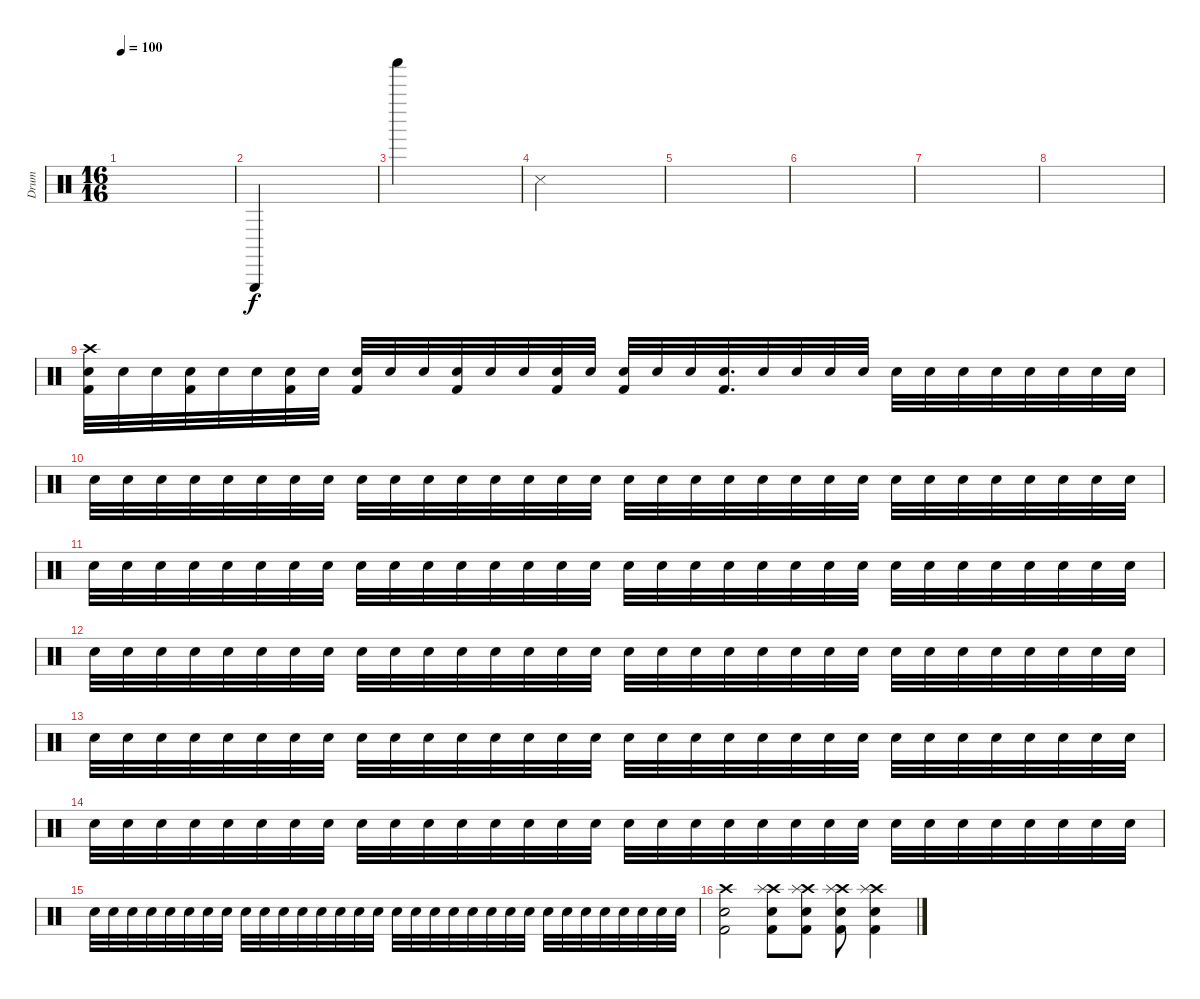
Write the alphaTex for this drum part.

\track ("Drum" "Drum") {instrument percussion}
\staff {score}
\articulation defaults
\ts (16 16)
\tempo 100
\clef neutral
\ks aminor
|
"Triangle (hit)".4 |
"Shaker (hit)".4 |
"Snare (side stick) 3".4 |
|
|
|
|
("Crash high (hit)" "Kick (hit) 2" "Snare (hit) 2").32 "Snare (hit) 2".32 "Snare (hit) 2".32 ("Kick (hit) 2" "Snare (hit) 2").32 "Snare (hit) 2".32 "Snare (hit) 2".32 ("Kick (hit) 2" "Snare (hit) 2").32 "Snare (hit) 2".32 ("Kick (hit) 2" "Snare (hit) 2").32 "Snare (hit) 2".32 "Snare (hit) 2".32 ("Kick (hit) 2" "Snare (hit) 2").32 "Snare (hit) 2".32 "Snare (hit) 2".32 ("Kick (hit) 2" "Snare (hit) 2").32 "Snare (hit) 2".32 ("Kick (hit) 2" "Snare (hit) 2").32 "Snare (hit) 2".32 "Snare (hit) 2".32 ("Kick (hit) 2" "Snare (hit) 2").32{d} "Snare (hit) 2".32 "Snare (hit) 2".32 "Snare (hit) 2".32 "Snare (hit) 2".32 "Snare (hit) 2".32 "Snare (hit) 2".32 "Snare (hit) 2".32 "Snare (hit) 2".32 "Snare (hit) 2".32 "Snare (hit) 2".32 "Snare (hit) 2".32 "Snare (hit) 2".32 |
"Snare (hit) 2".32 "Snare (hit) 2".32 "Snare (hit) 2".32 "Snare (hit) 2".32 "Snare (hit) 2".32 "Snare (hit) 2".32 "Snare (hit) 2".32 "Snare (hit) 2".32 "Snare (hit) 2".32 "Snare (hit) 2".32 "Snare (hit) 2".32 "Snare (hit) 2".32 "Snare (hit) 2".32 "Snare (hit) 2".32 "Snare (hit) 2".32 "Snare (hit) 2".32 "Snare (hit) 2".32 "Snare (hit) 2".32 "Snare (hit) 2".32 "Snare (hit) 2".32 "Snare (hit) 2".32 "Snare (hit) 2".32 "Snare (hit) 2".32 "Snare (hit) 2".32 "Snare (hit) 2".32 "Snare (hit) 2".32 "Snare (hit) 2".32 "Snare (hit) 2".32 "Snare (hit) 2".32 "Snare (hit) 2".32 "Snare (hit) 2".32 "Snare (hit) 2".32 |
"Snare (hit) 2".32 "Snare (hit) 2".32 "Snare (hit) 2".32 "Snare (hit) 2".32 "Snare (hit) 2".32 "Snare (hit) 2".32 "Snare (hit) 2".32 "Snare (hit) 2".32 "Snare (hit) 2".32 "Snare (hit) 2".32 "Snare (hit) 2".32 "Snare (hit) 2".32 "Snare (hit) 2".32 "Snare (hit) 2".32 "Snare (hit) 2".32 "Snare (hit) 2".32 "Snare (hit) 2".32 "Snare (hit) 2".32 "Snare (hit) 2".32 "Snare (hit) 2".32 "Snare (hit) 2".32 "Snare (hit) 2".32 "Snare (hit) 2".32 "Snare (hit) 2".32 "Snare (hit) 2".32 "Snare (hit) 2".32 "Snare (hit) 2".32 "Snare (hit) 2".32 "Snare (hit) 2".32 "Snare (hit) 2".32 "Snare (hit) 2".32 "Snare (hit) 2".32 |
"Snare (hit) 2".32 "Snare (hit) 2".32 "Snare (hit) 2".32 "Snare (hit) 2".32 "Snare (hit) 2".32 "Snare (hit) 2".32 "Snare (hit) 2".32 "Snare (hit) 2".32 "Snare (hit) 2".32 "Snare (hit) 2".32 "Snare (hit) 2".32 "Snare (hit) 2".32 "Snare (hit) 2".32 "Snare (hit) 2".32 "Snare (hit) 2".32 "Snare (hit) 2".32 "Snare (hit) 2".32 "Snare (hit) 2".32 "Snare (hit) 2".32 "Snare (hit) 2".32 "Snare (hit) 2".32 "Snare (hit) 2".32 "Snare (hit) 2".32 "Snare (hit) 2".32 "Snare (hit) 2".32 "Snare (hit) 2".32 "Snare (hit) 2".32 "Snare (hit) 2".32 "Snare (hit) 2".32 "Snare (hit) 2".32 "Snare (hit) 2".32 "Snare (hit) 2".32 |
"Snare (hit) 2".32 "Snare (hit) 2".32 "Snare (hit) 2".32 "Snare (hit) 2".32 "Snare (hit) 2".32 "Snare (hit) 2".32 "Snare (hit) 2".32 "Snare (hit) 2".32 "Snare (hit) 2".32 "Snare (hit) 2".32 "Snare (hit) 2".32 "Snare (hit) 2".32 "Snare (hit) 2".32 "Snare (hit) 2".32 "Snare (hit) 2".32 "Snare (hit) 2".32 "Snare (hit) 2".32 "Snare (hit) 2".32 "Snare (hit) 2".32 "Snare (hit) 2".32 "Snare (hit) 2".32 "Snare (hit) 2".32 "Snare (hit) 2".32 "Snare (hit) 2".32 "Snare (hit) 2".32 "Snare (hit) 2".32 "Snare (hit) 2".32 "Snare (hit) 2".32 "Snare (hit) 2".32 "Snare (hit) 2".32 "Snare (hit) 2".32 "Snare (hit) 2".32 |
"Snare (hit) 2".32 "Snare (hit) 2".32 "Snare (hit) 2".32 "Snare (hit) 2".32 "Snare (hit) 2".32 "Snare (hit) 2".32 "Snare (hit) 2".32 "Snare (hit) 2".32 "Snare (hit) 2".32 "Snare (hit) 2".32 "Snare (hit) 2".32 "Snare (hit) 2".32 "Snare (hit) 2".32 "Snare (hit) 2".32 "Snare (hit) 2".32 "Snare (hit) 2".32 "Snare (hit) 2".32 "Snare (hit) 2".32 "Snare (hit) 2".32 "Snare (hit) 2".32 "Snare (hit) 2".32 "Snare (hit) 2".32 "Snare (hit) 2".32 "Snare (hit) 2".32 "Snare (hit) 2".32 "Snare (hit) 2".32 "Snare (hit) 2".32 "Snare (hit) 2".32 "Snare (hit) 2".32 "Snare (hit) 2".32 "Snare (hit) 2".32 "Snare (hit) 2".32 |
"Snare (hit) 2".32 "Snare (hit) 2".32 "Snare (hit) 2".32 "Snare (hit) 2".32 "Snare (hit) 2".32 "Snare (hit) 2".32 "Snare (hit) 2".32 "Snare (hit) 2".32 "Snare (hit) 2".32 "Snare (hit) 2".32 "Snare (hit) 2".32 "Snare (hit) 2".32 "Snare (hit) 2".32 "Snare (hit) 2".32 "Snare (hit) 2".32 "Snare (hit) 2".32 "Snare (hit) 2".32 "Snare (hit) 2".32 "Snare (hit) 2".32 "Snare (hit) 2".32 "Snare (hit) 2".32 "Snare (hit) 2".32 "Snare (hit) 2".32 "Snare (hit) 2".32 "Snare (hit) 2".32 "Snare (hit) 2".32 "Snare (hit) 2".32 "Snare (hit) 2".32 "Snare (hit) 2".32 "Snare (hit) 2".32 "Snare (hit) 2".32 "Snare (hit) 2".32 |
("Crash high (hit)" "Kick (hit) 2" "Snare (hit) 2").2 ("Crash high (hit)" "Splash (hit)" "Kick (hit) 2" "Snare (hit) 2").8 ("Crash high (hit)" "Splash (hit)" "Kick (hit) 2" "Snare (hit) 2").8 ("Crash high (hit)" "Splash (hit)" "Kick (hit) 2" "Snare (hit) 2").8 ("Crash high (hit)" "Splash (hit)" "Kick (hit) 2" "Snare (hit) 2").4
